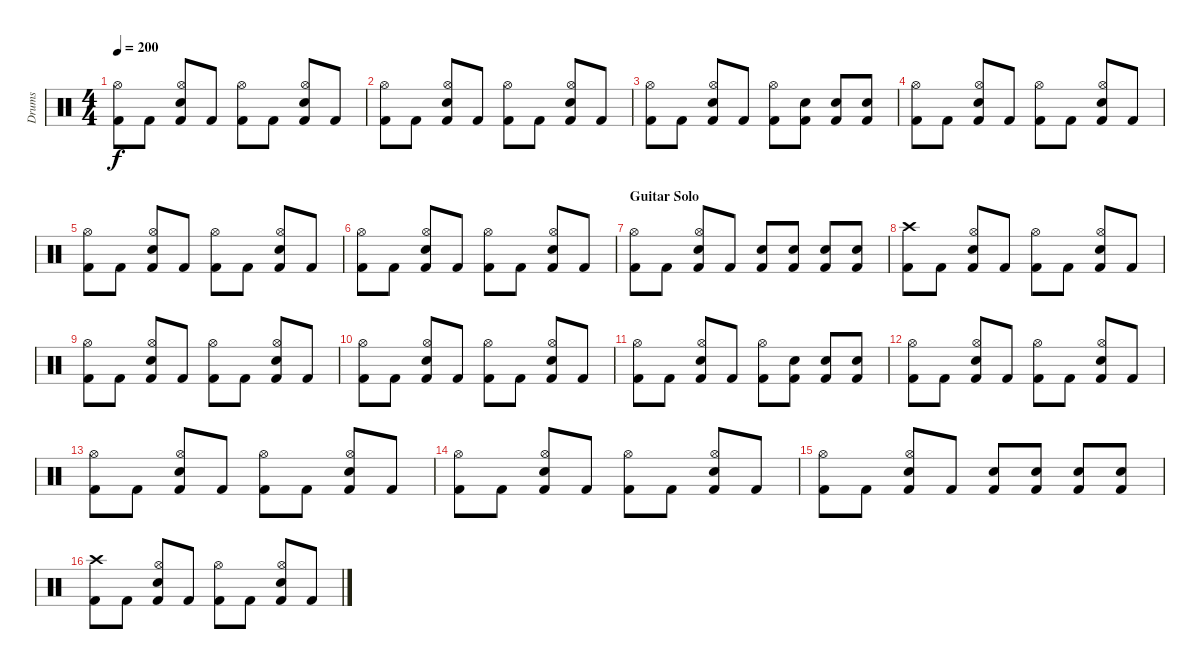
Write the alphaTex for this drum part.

\track ("Drums" "Drums") {instrument percussion}
\staff {score}
\articulation defaults
\ts (4 4)
\tempo 200
\clef neutral
\ks c
("Kick (hit) 2" "Hi-Hat (open)").8{dy f} "Kick (hit) 2".8 ("Kick (hit) 2" "Snare (hit) 2" "Hi-Hat (open)").8 "Kick (hit) 2".8 ("Kick (hit) 2" "Hi-Hat (open)").8 "Kick (hit) 2".8 ("Kick (hit) 2" "Snare (hit) 2" "Hi-Hat (open)").8 "Kick (hit) 2".8 |
("Kick (hit) 2" "Hi-Hat (open)").8 "Kick (hit) 2".8 ("Kick (hit) 2" "Snare (hit) 2" "Hi-Hat (open)").8 "Kick (hit) 2".8 ("Kick (hit) 2" "Hi-Hat (open)").8 "Kick (hit) 2".8 ("Kick (hit) 2" "Snare (hit) 2" "Hi-Hat (open)").8 "Kick (hit) 2".8 |
("Kick (hit) 2" "Hi-Hat (open)").8 "Kick (hit) 2".8 ("Kick (hit) 2" "Snare (hit) 2" "Hi-Hat (open)").8 "Kick (hit) 2".8 ("Kick (hit) 2" "Hi-Hat (open)").8 ("Kick (hit) 2" "Snare (hit) 2").8 ("Kick (hit) 2" "Snare (hit) 2").8 ("Kick (hit) 2" "Snare (hit) 2").8 |
("Kick (hit) 2" "Hi-Hat (open)").8 "Kick (hit) 2".8 ("Kick (hit) 2" "Snare (hit) 2" "Hi-Hat (open)").8 "Kick (hit) 2".8 ("Kick (hit) 2" "Hi-Hat (open)").8 "Kick (hit) 2".8 ("Kick (hit) 2" "Snare (hit) 2" "Hi-Hat (open)").8 "Kick (hit) 2".8 |
("Kick (hit) 2" "Hi-Hat (open)").8 "Kick (hit) 2".8 ("Kick (hit) 2" "Snare (hit) 2" "Hi-Hat (open)").8 "Kick (hit) 2".8 ("Kick (hit) 2" "Hi-Hat (open)").8 "Kick (hit) 2".8 ("Kick (hit) 2" "Snare (hit) 2" "Hi-Hat (open)").8 "Kick (hit) 2".8 |
("Kick (hit) 2" "Hi-Hat (open)").8 "Kick (hit) 2".8 ("Kick (hit) 2" "Snare (hit) 2" "Hi-Hat (open)").8 "Kick (hit) 2".8 ("Kick (hit) 2" "Hi-Hat (open)").8 "Kick (hit) 2".8 ("Kick (hit) 2" "Snare (hit) 2" "Hi-Hat (open)").8 "Kick (hit) 2".8 |
\section ("" "Guitar Solo")
("Kick (hit) 2" "Hi-Hat (open)").8 "Kick (hit) 2".8 ("Kick (hit) 2" "Snare (hit) 2" "Hi-Hat (open)").8 "Kick (hit) 2".8 ("Kick (hit) 2" "Snare (hit) 2").8 ("Kick (hit) 2" "Snare (hit) 2").8 ("Kick (hit) 2" "Snare (hit) 2").8 ("Kick (hit) 2" "Snare (hit) 2").8 |
("Kick (hit) 2" "Crash high (hit)").8 "Kick (hit) 2".8 ("Kick (hit) 2" "Snare (hit) 2" "Hi-Hat (open)").8 "Kick (hit) 2".8 ("Kick (hit) 2" "Hi-Hat (open)").8 "Kick (hit) 2".8 ("Kick (hit) 2" "Snare (hit) 2" "Hi-Hat (open)").8 "Kick (hit) 2".8 |
("Kick (hit) 2" "Hi-Hat (open)").8 "Kick (hit) 2".8 ("Kick (hit) 2" "Snare (hit) 2" "Hi-Hat (open)").8 "Kick (hit) 2".8 ("Kick (hit) 2" "Hi-Hat (open)").8 "Kick (hit) 2".8 ("Kick (hit) 2" "Snare (hit) 2" "Hi-Hat (open)").8 "Kick (hit) 2".8 |
("Kick (hit) 2" "Hi-Hat (open)").8 "Kick (hit) 2".8 ("Kick (hit) 2" "Snare (hit) 2" "Hi-Hat (open)").8 "Kick (hit) 2".8 ("Kick (hit) 2" "Hi-Hat (open)").8 "Kick (hit) 2".8 ("Kick (hit) 2" "Snare (hit) 2" "Hi-Hat (open)").8 "Kick (hit) 2".8 |
("Kick (hit) 2" "Hi-Hat (open)").8 "Kick (hit) 2".8 ("Kick (hit) 2" "Snare (hit) 2" "Hi-Hat (open)").8 "Kick (hit) 2".8 ("Kick (hit) 2" "Hi-Hat (open)").8 ("Kick (hit) 2" "Snare (hit) 2").8 ("Kick (hit) 2" "Snare (hit) 2").8 ("Kick (hit) 2" "Snare (hit) 2").8 |
("Kick (hit) 2" "Hi-Hat (open)").8 "Kick (hit) 2".8 ("Kick (hit) 2" "Snare (hit) 2" "Hi-Hat (open)").8 "Kick (hit) 2".8 ("Kick (hit) 2" "Hi-Hat (open)").8 "Kick (hit) 2".8 ("Kick (hit) 2" "Snare (hit) 2" "Hi-Hat (open)").8 "Kick (hit) 2".8 |
("Kick (hit) 2" "Hi-Hat (open)").8 "Kick (hit) 2".8 ("Kick (hit) 2" "Snare (hit) 2" "Hi-Hat (open)").8 "Kick (hit) 2".8 ("Kick (hit) 2" "Hi-Hat (open)").8 "Kick (hit) 2".8 ("Kick (hit) 2" "Snare (hit) 2" "Hi-Hat (open)").8 "Kick (hit) 2".8 |
("Kick (hit) 2" "Hi-Hat (open)").8 "Kick (hit) 2".8 ("Kick (hit) 2" "Snare (hit) 2" "Hi-Hat (open)").8 "Kick (hit) 2".8 ("Kick (hit) 2" "Hi-Hat (open)").8 "Kick (hit) 2".8 ("Kick (hit) 2" "Snare (hit) 2" "Hi-Hat (open)").8 "Kick (hit) 2".8 |
("Kick (hit) 2" "Hi-Hat (open)").8 "Kick (hit) 2".8 ("Kick (hit) 2" "Snare (hit) 2" "Hi-Hat (open)").8 "Kick (hit) 2".8 ("Kick (hit) 2" "Snare (hit) 2").8 ("Kick (hit) 2" "Snare (hit) 2").8 ("Kick (hit) 2" "Snare (hit) 2").8 ("Kick (hit) 2" "Snare (hit) 2").8 |
("Kick (hit) 2" "Crash high (hit)").8 "Kick (hit) 2".8 ("Kick (hit) 2" "Snare (hit) 2" "Hi-Hat (open)").8 "Kick (hit) 2".8 ("Kick (hit) 2" "Hi-Hat (open)").8 "Kick (hit) 2".8 ("Kick (hit) 2" "Snare (hit) 2" "Hi-Hat (open)").8 "Kick (hit) 2".8
